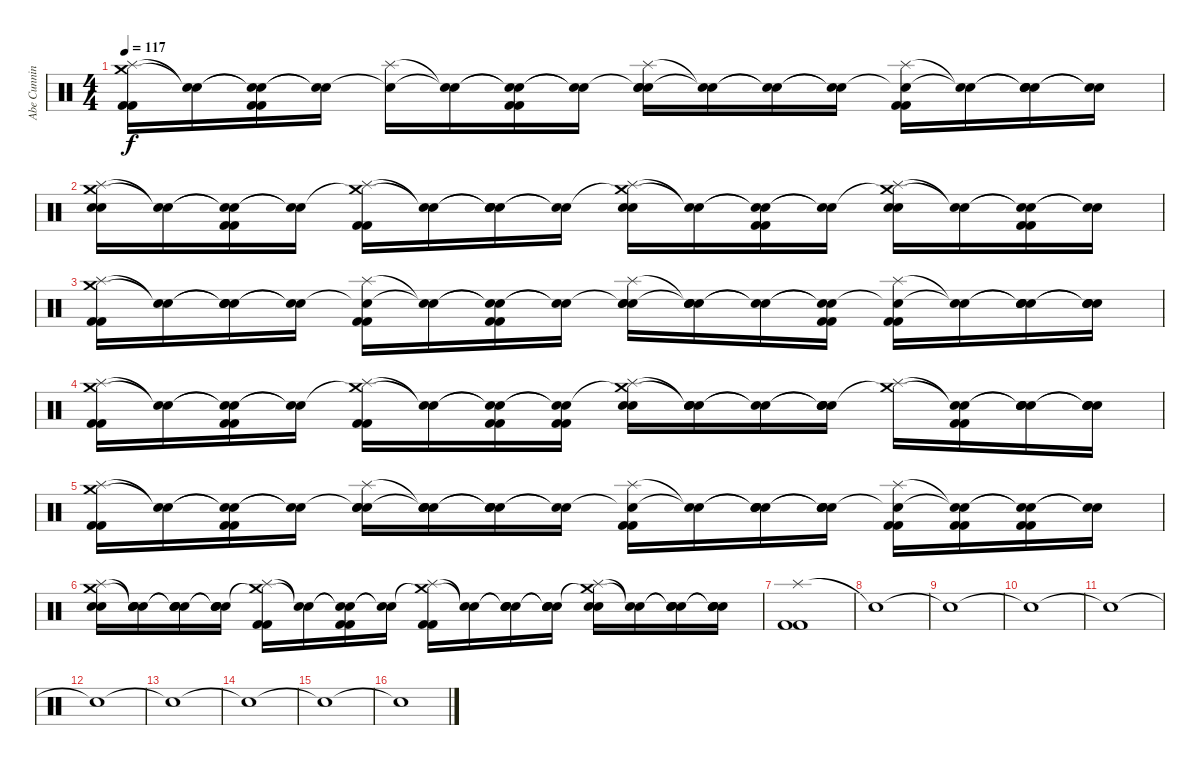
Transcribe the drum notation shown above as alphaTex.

\track ("Abe Cunningham" "Abe Cunnin") {instrument percussion}
\staff {score}
\articulation defaults
\ts (4 4)
\tempo 117
\clef neutral
\ks c
("Splash (hit)" "Crash medium (hit)" "Kick (hit) 2" "Kick (hit) 2").16{dy f} ("Snare (hit)"{t} "Snare (hit)"{t}).16 ("Snare (hit)"{t} "Snare (hit)"{t} "Kick (hit) 2" "Kick (hit) 2").16 ("Snare (hit)"{t} "Snare (hit)"{t}).16 ("Splash (hit)" "Snare (hit)"{t}).16 ("Snare (hit)"{t} "Snare (hit)"{t}).16 ("Snare (hit)"{t} "Snare (hit)"{t} "Kick (hit) 2" "Kick (hit) 2").16 ("Snare (hit)"{t} "Snare (hit)"{t}).16 ("Splash (hit)" "Snare (hit)"{t} "Electric Snare (hit)" "Electric Snare (hit)").16 ("Snare (hit)"{t} "Snare (hit)"{t}).16 ("Snare (hit)"{t} "Snare (hit)"{t}).16 ("Snare (hit)"{t} "Snare (hit)"{t}).16 ("Splash (hit)" "Snare (hit)"{t} "Kick (hit) 2" "Kick (hit) 2").16 ("Snare (hit)"{t} "Snare (hit)"{t}).16 ("Snare (hit)"{t} "Snare (hit)"{t} "Electric Snare (hit)" "Electric Snare (hit)").16 ("Snare (hit)"{t} "Snare (hit)"{t}).16 |
("Splash (hit)" "Crash medium (hit)" "Electric Snare (hit)" "Electric Snare (hit)").16 ("Snare (hit)"{t} "Snare (hit)"{t}).16 ("Snare (hit)"{t} "Snare (hit)"{t} "Kick (hit) 2" "Kick (hit) 2").16 ("Snare (hit)"{t} "Snare (hit)"{t}).16 ("Splash (hit)" "Crash medium (hit)"{t} "Kick (hit) 2" "Kick (hit) 2").16 ("Snare (hit)"{t} "Snare (hit)"{t}).16 ("Snare (hit)"{t} "Snare (hit)"{t} "Electric Snare (hit)" "Electric Snare (hit)").16 ("Snare (hit)"{t} "Snare (hit)"{t}).16 ("Splash (hit)" "Crash medium (hit)"{t} "Electric Snare (hit)" "Electric Snare (hit)").16 ("Snare (hit)"{t} "Snare (hit)"{t}).16 ("Snare (hit)"{t} "Snare (hit)"{t} "Kick (hit) 2" "Kick (hit) 2").16 ("Snare (hit)"{t} "Snare (hit)"{t}).16 ("Splash (hit)" "Crash medium (hit)"{t} "Electric Snare (hit)" "Electric Snare (hit)").16 ("Snare (hit)"{t} "Snare (hit)"{t}).16 ("Snare (hit)"{t} "Snare (hit)"{t} "Kick (hit) 2" "Kick (hit) 2").16 ("Snare (hit)"{t} "Snare (hit)"{t}).16 |
("Splash (hit)" "Crash medium (hit)" "Kick (hit) 2" "Kick (hit) 2").16 ("Snare (hit)"{t} "Snare (hit)"{t}).16 ("Snare (hit)"{t} "Snare (hit)"{t} "Electric Snare (hit)" "Electric Snare (hit)").16 ("Snare (hit)"{t} "Snare (hit)"{t}).16 ("Splash (hit)" "Snare (hit)"{t} "Kick (hit) 2" "Kick (hit) 2").16 ("Snare (hit)"{t} "Snare (hit)"{t}).16 ("Snare (hit)"{t} "Snare (hit)"{t} "Kick (hit) 2" "Kick (hit) 2").16 ("Snare (hit)"{t} "Snare (hit)"{t}).16 ("Splash (hit)" "Snare (hit)"{t} "Electric Snare (hit)" "Electric Snare (hit)").16 ("Snare (hit)"{t} "Snare (hit)"{t} "Electric Snare (hit)" "Electric Snare (hit)").16 ("Snare (hit)"{t} "Snare (hit)"{t}).16 ("Snare (hit)"{t} "Snare (hit)"{t} "Kick (hit) 2" "Kick (hit) 2").16 ("Splash (hit)" "Snare (hit)"{t} "Kick (hit) 2" "Kick (hit) 2").16 ("Snare (hit)"{t} "Snare (hit)"{t}).16 ("Snare (hit)"{t} "Snare (hit)"{t} "Electric Snare (hit)" "Electric Snare (hit)").16 ("Snare (hit)"{t} "Snare (hit)"{t} "Electric Snare (hit)" "Electric Snare (hit)").16 |
("Splash (hit)" "Crash medium (hit)" "Kick (hit) 2" "Kick (hit) 2").16 ("Snare (hit)"{t} "Snare (hit)"{t}).16 ("Snare (hit)"{t} "Snare (hit)"{t} "Kick (hit) 2" "Kick (hit) 2").16 ("Snare (hit)"{t} "Snare (hit)"{t}).16 ("Splash (hit)" "Crash medium (hit)"{t} "Kick (hit) 2" "Kick (hit) 2").16 ("Snare (hit)"{t} "Snare (hit)"{t}).16 ("Snare (hit)"{t} "Snare (hit)"{t} "Kick (hit) 2" "Kick (hit) 2").16 ("Snare (hit)"{t} "Snare (hit)"{t} "Kick (hit) 2" "Kick (hit) 2").16 ("Splash (hit)" "Crash medium (hit)"{t} "Electric Snare (hit)" "Electric Snare (hit)").16 ("Snare (hit)"{t} "Snare (hit)"{t} "Electric Snare (hit)" "Electric Snare (hit)").16 ("Snare (hit)"{t} "Snare (hit)"{t}).16 ("Snare (hit)"{t} "Snare (hit)"{t} "Electric Snare (hit)" "Electric Snare (hit)").16 ("Splash (hit)" "Crash medium (hit)"{t}).16 ("Snare (hit)"{t} "Snare (hit)"{t} "Kick (hit) 2" "Kick (hit) 2").16 ("Snare (hit)"{t} "Snare (hit)"{t} "Electric Snare (hit)" "Electric Snare (hit)").16 ("Snare (hit)"{t} "Snare (hit)"{t} "Electric Snare (hit)" "Electric Snare (hit)").16 |
("Splash (hit)" "Crash medium (hit)" "Kick (hit) 2" "Kick (hit) 2").16 ("Snare (hit)"{t} "Snare (hit)"{t}).16 ("Snare (hit)"{t} "Snare (hit)"{t} "Kick (hit) 2" "Kick (hit) 2").16 ("Snare (hit)"{t} "Snare (hit)"{t}).16 ("Splash (hit)" "Snare (hit)"{t} "Electric Snare (hit)" "Electric Snare (hit)").16 ("Snare (hit)"{t} "Snare (hit)"{t} "Electric Snare (hit)" "Electric Snare (hit)").16 ("Snare (hit)"{t} "Snare (hit)"{t} "Electric Snare (hit)" "Electric Snare (hit)").16 ("Snare (hit)"{t} "Snare (hit)"{t}).16 ("Splash (hit)" "Snare (hit)"{t} "Kick (hit) 2" "Kick (hit) 2").16 ("Snare (hit)"{t} "Snare (hit)"{t}).16 ("Snare (hit)"{t} "Snare (hit)"{t} "Electric Snare (hit)" "Electric Snare (hit)").16 ("Snare (hit)"{t} "Snare (hit)"{t} "Electric Snare (hit)" "Electric Snare (hit)").16 ("Splash (hit)" "Snare (hit)"{t} "Kick (hit) 2" "Kick (hit) 2").16 ("Snare (hit)"{t} "Snare (hit)"{t} "Kick (hit) 2" "Kick (hit) 2").16 ("Snare (hit)"{t} "Snare (hit)"{t} "Kick (hit) 2" "Kick (hit) 2").16 ("Snare (hit)"{t} "Snare (hit)"{t}).16 |
("Splash (hit)" "Crash medium (hit)" "Electric Snare (hit)" "Electric Snare (hit)").16 ("Snare (hit)"{t} "Snare (hit)"{t} "Electric Snare (hit)" "Electric Snare (hit)").16 ("Snare (hit)"{t} "Snare (hit)"{t} "Electric Snare (hit)" "Electric Snare (hit)").16 ("Snare (hit)"{t} "Snare (hit)"{t} "Electric Snare (hit)" "Electric Snare (hit)").16 ("Splash (hit)" "Crash medium (hit)"{t} "Kick (hit) 2" "Kick (hit) 2").16 ("Snare (hit)"{t} "Snare (hit)"{t}).16 ("Snare (hit)"{t} "Snare (hit)"{t} "Kick (hit) 2" "Kick (hit) 2").16 ("Snare (hit)"{t} "Snare (hit)"{t}).16 ("Splash (hit)" "Crash medium (hit)"{t} "Kick (hit) 2" "Kick (hit) 2").16 ("Snare (hit)"{t} "Snare (hit)"{t}).16 ("Snare (hit)"{t} "Snare (hit)"{t} "Electric Snare (hit)" "Electric Snare (hit)").16 ("Snare (hit)"{t} "Snare (hit)"{t} "Electric Snare (hit)" "Electric Snare (hit)").16 ("Splash (hit)" "Crash medium (hit)"{t} "Electric Snare (hit)" "Electric Snare (hit)").16 ("Snare (hit)"{t} "Snare (hit)"{t}).16 ("Snare (hit)"{t} "Snare (hit)"{t} "Electric Snare (hit)" "Electric Snare (hit)").16 ("Snare (hit)"{t} "Snare (hit)"{t} "Electric Snare (hit)" "Electric Snare (hit)").16 |
("Splash (hit)" "Kick (hit) 2" "Kick (hit) 2").1 |
"Snare (hit)"{t}.1 |
"Snare (hit)"{t}.1 |
"Snare (hit)"{t}.1 |
"Snare (hit)"{t}.1 |
"Snare (hit)"{t}.1 |
"Snare (hit)"{t}.1 |
"Snare (hit)"{t}.1 |
"Snare (hit)"{t}.1 |
"Snare (hit)"{t}.1
